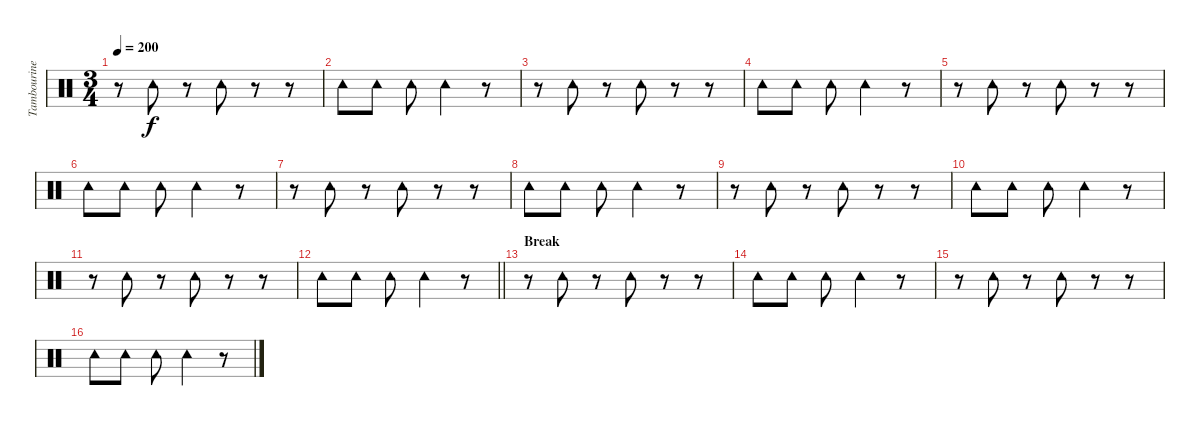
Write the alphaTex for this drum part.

\track ("Tambourine" "Tambourine") {instrument percussion}
\staff {score}
\articulation defaults
\ts (3 4)
\tempo 200
\clef neutral
\ks c
r.8{dy f} "Tambourine (hit)".8 r.8 "Tambourine (hit)".8 r.8 r.8 |
"Tambourine (hit)".8 "Tambourine (hit)".8 "Tambourine (hit)".8 "Tambourine (hit)".4 r.8 |
r.8 "Tambourine (hit)".8 r.8 "Tambourine (hit)".8 r.8 r.8 |
"Tambourine (hit)".8 "Tambourine (hit)".8 "Tambourine (hit)".8 "Tambourine (hit)".4 r.8 |
r.8 "Tambourine (hit)".8 r.8 "Tambourine (hit)".8 r.8 r.8 |
"Tambourine (hit)".8 "Tambourine (hit)".8 "Tambourine (hit)".8 "Tambourine (hit)".4 r.8 |
r.8 "Tambourine (hit)".8 r.8 "Tambourine (hit)".8 r.8 r.8 |
"Tambourine (hit)".8 "Tambourine (hit)".8 "Tambourine (hit)".8 "Tambourine (hit)".4 r.8 |
r.8 "Tambourine (hit)".8 r.8 "Tambourine (hit)".8 r.8 r.8 |
"Tambourine (hit)".8 "Tambourine (hit)".8 "Tambourine (hit)".8 "Tambourine (hit)".4 r.8 |
r.8 "Tambourine (hit)".8 r.8 "Tambourine (hit)".8 r.8 r.8 |
\barLineRight lightlight "Tambourine (hit)".8 "Tambourine (hit)".8 "Tambourine (hit)".8 "Tambourine (hit)".4
r.8 |
\section ("" "Break")
r.8 "Tambourine (hit)".8 r.8 "Tambourine (hit)".8 r.8 r.8 |
"Tambourine (hit)".8 "Tambourine (hit)".8 "Tambourine (hit)".8 "Tambourine (hit)".4 r.8 |
r.8 "Tambourine (hit)".8 r.8 "Tambourine (hit)".8 r.8 r.8 |
"Tambourine (hit)".8 "Tambourine (hit)".8 "Tambourine (hit)".8 "Tambourine (hit)".4 r.8
